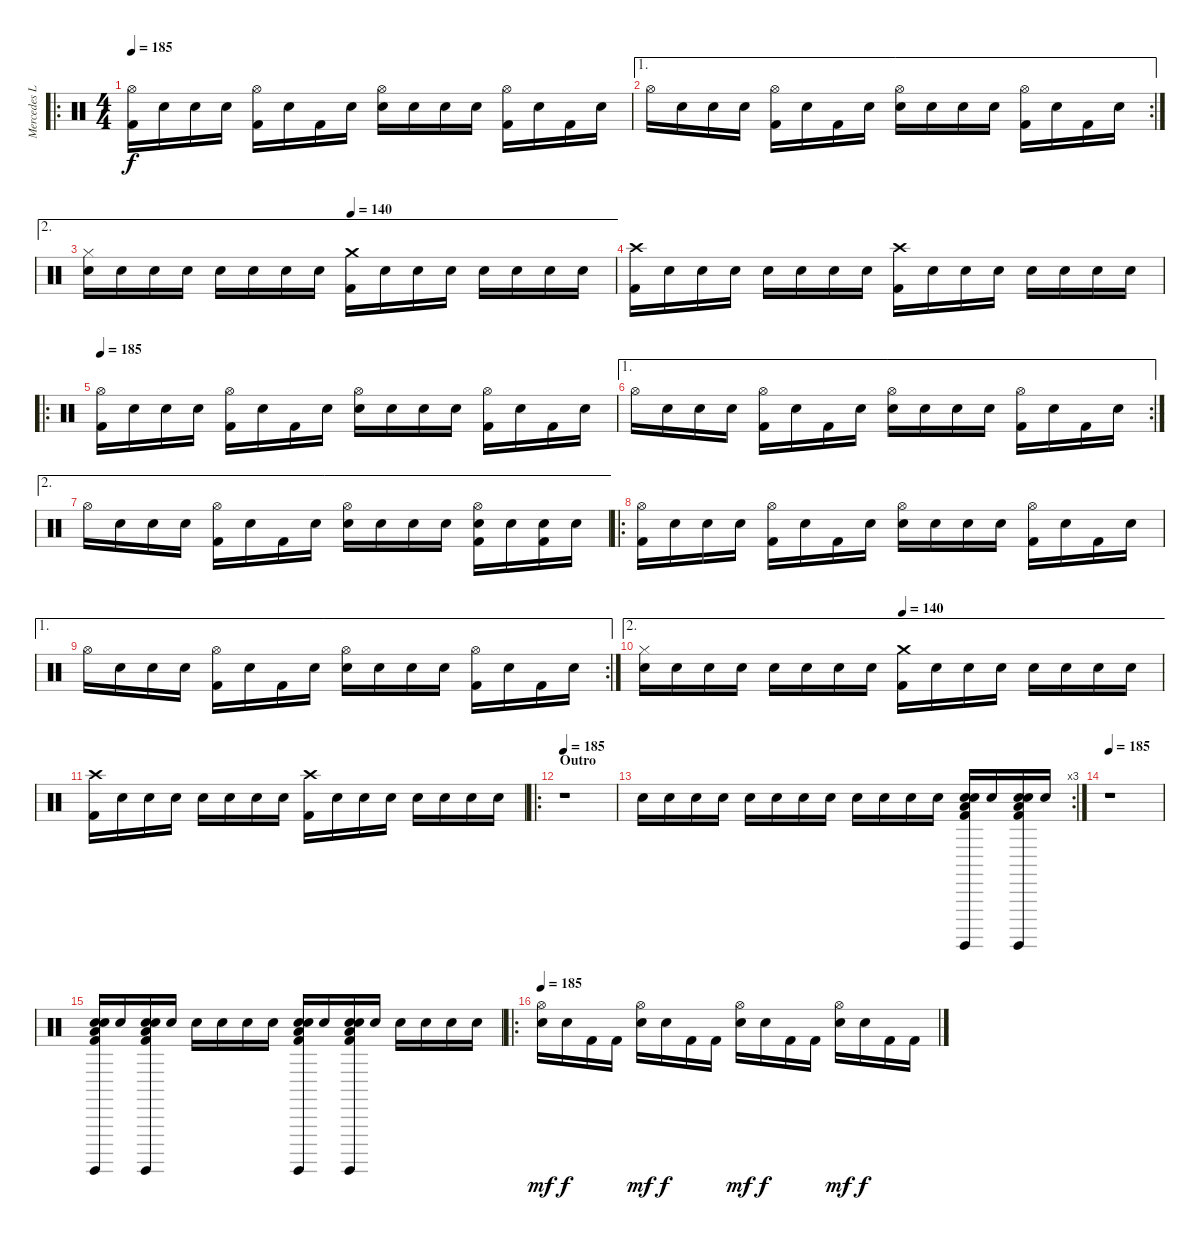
\track ("Mercedes Lander - Drums" "Mercedes L") {instrument percussion}
\staff {score}
\articulation defaults
\ro
\ts (4 4)
\tempo 185
\clef neutral
\ks c
("Hi-Hat (open)" "Kick (hit) 2").16{dy f} "Snare (hit)".16 "Snare (hit)".16 "Snare (hit)".16 ("Hi-Hat (open)" "Kick (hit) 2").16 "Snare (hit)".16 "Kick (hit) 2".16 "Snare (hit)".16 ("Hi-Hat (open)" "Snare (hit) 2").16 "Snare (hit)".16 "Snare (hit)".16 "Snare (hit)".16 ("Hi-Hat (open)" "Kick (hit) 2").16 "Snare (hit)".16 "Kick (hit) 2".16 "Snare (hit)".16 |
\ae 1
\rc 2 "Hi-Hat (open)".16 "Snare (hit)".16 "Snare (hit)".16 "Snare (hit)".16
("Hi-Hat (open)" "Kick (hit) 2").16 "Snare (hit)".16 "Kick (hit) 2".16 "Snare (hit)".16 ("Hi-Hat (open)" "Electric Snare (hit)").16 "Snare (hit)".16 "Snare (hit)".16 "Snare (hit)".16 ("Hi-Hat (open)" "Kick (hit) 2").16 "Snare (hit)".16 "Kick (hit) 2".16 "Snare (hit)".16 |
\ae 2
\tempo (140 0.5)
("Hi-Hat (closed)" "Electric Snare (hit)").16 "Electric Snare (hit)".16 "Electric Snare (hit)".16 "Electric Snare (hit)".16 "Snare (hit) 2".16 "Snare (hit) 2".16 "Snare (hit) 2".16 "Snare (hit) 2".16 ("Crash medium (hit)" "Kick (hit) 2").16 "Snare (hit)".16 "Snare (hit)".16 "Snare (hit)".16 "Snare (hit)".16 "Snare (hit)".16 "Snare (hit)".16 "Snare (hit)".16 |
("Crash high (hit)" "Kick (hit) 2").16 "Snare (hit)".16 "Snare (hit)".16 "Snare (hit)".16 "Snare (hit)".16 "Snare (hit)".16 "Snare (hit)".16 "Snare (hit)".16 ("Crash high (hit)" "Kick (hit) 2").16 "Snare (hit)".16 "Snare (hit)".16 "Snare (hit)".16 "Snare (hit)".16 "Snare (hit)".16 "Snare (hit)".16 "Snare (hit)".16 |
\ro
\tempo 185
("Hi-Hat (open)" "Kick (hit) 2").16 "Snare (hit)".16 "Snare (hit)".16 "Snare (hit)".16 ("Hi-Hat (open)" "Kick (hit) 2").16 "Snare (hit)".16 "Kick (hit) 2".16 "Snare (hit)".16 ("Hi-Hat (open)" "Snare (hit) 2").16 "Snare (hit)".16 "Snare (hit)".16 "Snare (hit)".16 ("Hi-Hat (open)" "Kick (hit) 2").16 "Snare (hit)".16 "Kick (hit) 2".16 "Snare (hit)".16 |
\ae 1
\rc 2 "Hi-Hat (open)".16 "Snare (hit)".16 "Snare (hit)".16 "Snare (hit)".16
("Hi-Hat (open)" "Kick (hit) 2").16 "Snare (hit)".16 "Kick (hit) 2".16 "Snare (hit)".16 ("Hi-Hat (open)" "Electric Snare (hit)").16 "Snare (hit)".16 "Snare (hit)".16 "Snare (hit)".16 ("Hi-Hat (open)" "Kick (hit) 2").16 "Snare (hit)".16 "Kick (hit) 2".16 "Snare (hit)".16 |
\ae 2 "Hi-Hat (open)".16 "Snare (hit)".16 "Snare (hit)".16 "Snare (hit)".16
("Hi-Hat (open)" "Kick (hit) 2").16 "Snare (hit)".16 "Kick (hit) 2".16 "Snare (hit)".16 ("Hi-Hat (open)" "Electric Snare (hit)").16 "Electric Snare (hit)".16 "Electric Snare (hit)".16 "Electric Snare (hit)".16 ("Hi-Hat (open)" "Electric Snare (hit)" "Kick (hit) 2").16 "Snare (hit)".16 ("Electric Snare (hit)" "Kick (hit) 2").16 "Snare (hit)".16 |
\ro
("Hi-Hat (open)" "Kick (hit) 2").16 "Snare (hit)".16 "Snare (hit)".16 "Snare (hit)".16 ("Hi-Hat (open)" "Kick (hit) 2").16 "Snare (hit)".16 "Kick (hit) 2".16 "Snare (hit)".16 ("Hi-Hat (open)" "Snare (hit) 2").16 "Snare (hit)".16 "Snare (hit)".16 "Snare (hit)".16 ("Hi-Hat (open)" "Kick (hit) 2").16 "Snare (hit)".16 "Kick (hit) 2".16 "Snare (hit)".16 |
\ae 1
\rc 2 "Hi-Hat (open)".16 "Snare (hit)".16 "Snare (hit)".16 "Snare (hit)".16
("Hi-Hat (open)" "Kick (hit) 2").16 "Snare (hit)".16 "Kick (hit) 2".16 "Snare (hit)".16 ("Hi-Hat (open)" "Electric Snare (hit)").16 "Snare (hit)".16 "Snare (hit)".16 "Snare (hit)".16 ("Hi-Hat (open)" "Kick (hit) 2").16 "Snare (hit)".16 "Kick (hit) 2".16 "Snare (hit)".16 |
\ae 2
\tempo (140 0.5)
("Hi-Hat (closed)" "Electric Snare (hit)").16 "Electric Snare (hit)".16 "Electric Snare (hit)".16 "Electric Snare (hit)".16 "Snare (hit) 2".16 "Snare (hit) 2".16 "Snare (hit) 2".16 "Snare (hit) 2".16 ("Crash medium (hit)" "Kick (hit) 2").16 "Snare (hit)".16 "Snare (hit)".16 "Snare (hit)".16 "Snare (hit)".16 "Snare (hit)".16 "Snare (hit)".16 "Snare (hit)".16 |
("Crash high (hit)" "Kick (hit) 2").16 "Snare (hit)".16 "Snare (hit)".16 "Snare (hit)".16 "Snare (hit)".16 "Snare (hit)".16 "Snare (hit)".16 "Snare (hit)".16 ("Crash high (hit)" "Kick (hit) 2").16 "Snare (hit)".16 "Snare (hit)".16 "Snare (hit)".16 "Snare (hit)".16 "Snare (hit)".16 "Snare (hit)".16 "Snare (hit)".16 |
\ro
\section ("" "Outro")
\tempo 185
r.1{volume 16 balance 8} |
\rc 3 "Snare (hit)".16 "Snare (hit)".16 "Snare (hit)".16 "Snare (hit)".16 "Snare (hit)".16 "Snare (hit)".16 "Snare (hit)".16 "Snare (hit)".16 "Snare (hit)".16 "Snare (hit)".16 "Snare (hit)".16 "Snare (hit)".16
("Surdo (hit)" "Low Floor Tom (hit)" "Electric Snare (hit)" "Snare (hit) 2" "Kick (hit) 2").16 "Snare (hit)".16 ("Surdo (hit)" "Low Floor Tom (hit)" "Electric Snare (hit)" "Snare (hit) 2" "Kick (hit) 2").16 "Snare (hit)".16 |
\tempo 185
r.1{volume 16 balance 8} |
("Surdo (hit)" "Low Floor Tom (hit)" "Electric Snare (hit)" "Snare (hit) 2" "Kick (hit) 2").16 "Snare (hit)".16 ("Surdo (hit)" "Low Floor Tom (hit)" "Electric Snare (hit)" "Snare (hit) 2" "Kick (hit) 2").16 "Snare (hit)".16 "Snare (hit)".16 "Snare (hit)".16 "Snare (hit)".16 "Snare (hit)".16 ("Surdo (hit)" "Low Floor Tom (hit)" "Electric Snare (hit)" "Snare (hit) 2" "Kick (hit) 2").16 "Snare (hit)".16 ("Surdo (hit)" "Low Floor Tom (hit)" "Electric Snare (hit)" "Snare (hit) 2" "Kick (hit) 2").16 "Snare (hit)".16 "Snare (hit)".16 "Snare (hit)".16 "Snare (hit)".16 "Snare (hit)".16 |
\ro
\tempo 185
("Hi-Hat (open)" "Electric Snare (hit)").16{dy mf volume 16 balance 8} "Snare (hit)".16{dy f} "Kick (hit) 2".16 "Kick (hit) 2".16 ("Hi-Hat (open)" "Electric Snare (hit)").16{dy mf} "Snare (hit)".16{dy f} "Kick (hit) 2".16 "Kick (hit) 2".16 ("Hi-Hat (open)" "Electric Snare (hit)").16{dy mf} "Snare (hit)".16{dy f} "Kick (hit) 2".16 "Kick (hit) 2".16 ("Hi-Hat (open)" "Electric Snare (hit)").16{dy mf} "Snare (hit)".16{dy f} "Kick (hit) 2".16 "Kick (hit) 2".16
